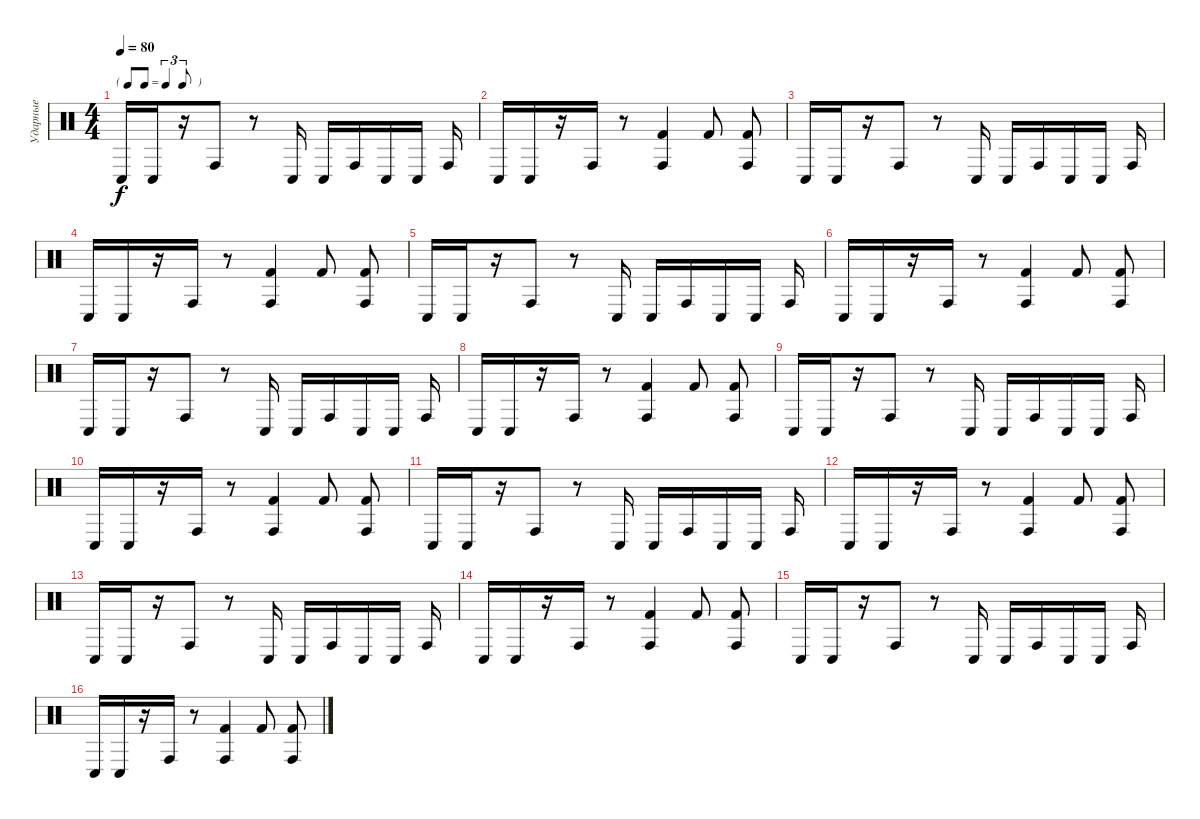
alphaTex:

\track ("Ударные" "Ударные") {instrument percussion}
\staff {score}
\articulation defaults
\ts (4 4)
\tf triplet8th
\tempo 80
\clef neutral
\ks c "Conga low (hit)".16{dy f} "Conga low (hit)".16
r.16 "Conga high (hit)".8 r.8 "Conga low (hit)".16 "Conga low (hit)".16 "Conga high (hit)".16 "Conga low (hit)".16 "Conga low (hit)".16 "Conga high (hit)".16 |
"Conga low (hit)".16 "Conga low (hit)".16 r.16 "Conga high (hit)".16 r.8 ("Conga high (hit)" "Kick (hit) 2").4 "Kick (hit) 2".8 ("Conga high (hit)" "Kick (hit) 2").8 |
"Conga low (hit)".16 "Conga low (hit)".16 r.16 "Conga high (hit)".8 r.8 "Conga low (hit)".16 "Conga low (hit)".16 "Conga high (hit)".16 "Conga low (hit)".16 "Conga low (hit)".16 "Conga high (hit)".16 |
"Conga low (hit)".16 "Conga low (hit)".16 r.16 "Conga high (hit)".16 r.8 ("Conga high (hit)" "Kick (hit) 2").4 "Kick (hit) 2".8 ("Conga high (hit)" "Kick (hit) 2").8 |
"Conga low (hit)".16 "Conga low (hit)".16 r.16 "Conga high (hit)".8 r.8 "Conga low (hit)".16 "Conga low (hit)".16 "Conga high (hit)".16 "Conga low (hit)".16 "Conga low (hit)".16 "Conga high (hit)".16 |
"Conga low (hit)".16 "Conga low (hit)".16 r.16 "Conga high (hit)".16 r.8 ("Conga high (hit)" "Kick (hit) 2").4 "Kick (hit) 2".8 ("Conga high (hit)" "Kick (hit) 2").8 |
"Conga low (hit)".16 "Conga low (hit)".16 r.16 "Conga high (hit)".8 r.8 "Conga low (hit)".16 "Conga low (hit)".16 "Conga high (hit)".16 "Conga low (hit)".16 "Conga low (hit)".16 "Conga high (hit)".16 |
"Conga low (hit)".16 "Conga low (hit)".16 r.16 "Conga high (hit)".16 r.8 ("Conga high (hit)" "Kick (hit) 2").4 "Kick (hit) 2".8 ("Conga high (hit)" "Kick (hit) 2").8 |
"Conga low (hit)".16 "Conga low (hit)".16 r.16 "Conga high (hit)".8 r.8 "Conga low (hit)".16 "Conga low (hit)".16 "Conga high (hit)".16 "Conga low (hit)".16 "Conga low (hit)".16 "Conga high (hit)".16 |
"Conga low (hit)".16 "Conga low (hit)".16 r.16 "Conga high (hit)".16 r.8 ("Conga high (hit)" "Kick (hit) 2").4 "Kick (hit) 2".8 ("Conga high (hit)" "Kick (hit) 2").8 |
"Conga low (hit)".16 "Conga low (hit)".16 r.16 "Conga high (hit)".8 r.8 "Conga low (hit)".16 "Conga low (hit)".16 "Conga high (hit)".16 "Conga low (hit)".16 "Conga low (hit)".16 "Conga high (hit)".16 |
"Conga low (hit)".16 "Conga low (hit)".16 r.16 "Conga high (hit)".16 r.8 ("Conga high (hit)" "Kick (hit) 2").4 "Kick (hit) 2".8 ("Conga high (hit)" "Kick (hit) 2").8 |
"Conga low (hit)".16 "Conga low (hit)".16 r.16 "Conga high (hit)".8 r.8 "Conga low (hit)".16 "Conga low (hit)".16 "Conga high (hit)".16 "Conga low (hit)".16 "Conga low (hit)".16 "Conga high (hit)".16 |
"Conga low (hit)".16 "Conga low (hit)".16 r.16 "Conga high (hit)".16 r.8 ("Conga high (hit)" "Kick (hit) 2").4 "Kick (hit) 2".8 ("Conga high (hit)" "Kick (hit) 2").8 |
"Conga low (hit)".16 "Conga low (hit)".16 r.16 "Conga high (hit)".8 r.8 "Conga low (hit)".16 "Conga low (hit)".16 "Conga high (hit)".16 "Conga low (hit)".16 "Conga low (hit)".16 "Conga high (hit)".16 |
"Conga low (hit)".16 "Conga low (hit)".16 r.16 "Conga high (hit)".16 r.8 ("Conga high (hit)" "Kick (hit) 2").4 "Kick (hit) 2".8 ("Conga high (hit)" "Kick (hit) 2").8
